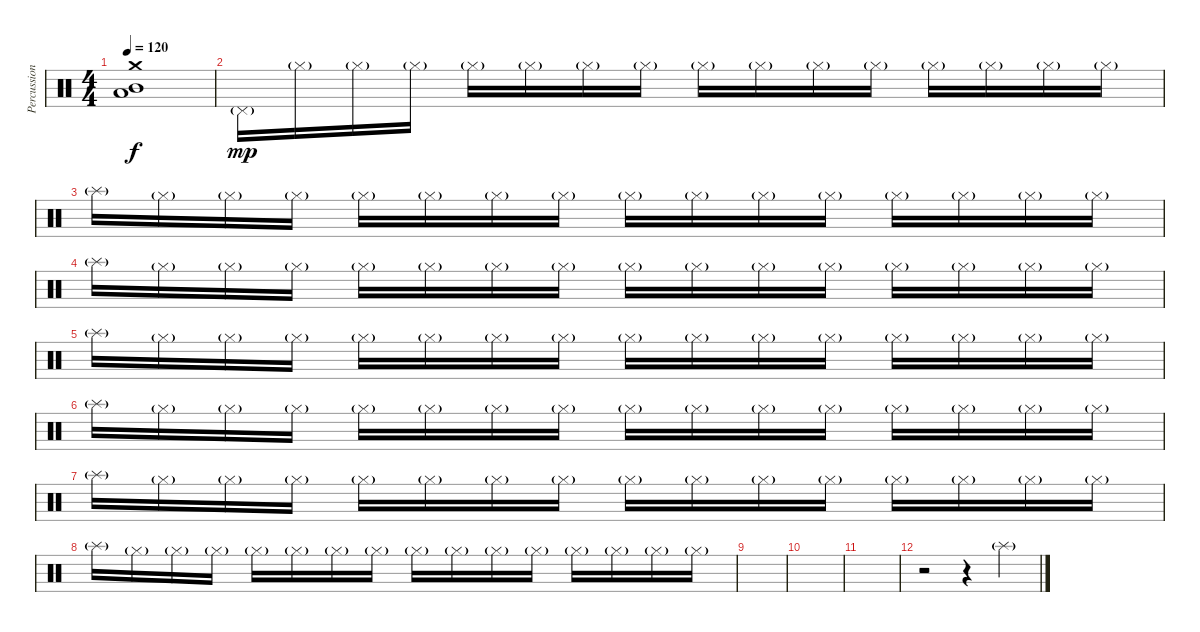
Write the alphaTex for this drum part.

\track ("Percussions" "Percussion") {instrument percussion}
\staff {score}
\articulation defaults
\ts (4 4)
\tempo 120
\clef neutral
\ks c
("Crash medium (hit)" "Mid Tom (hit)" "Low Tom (hit)").1{dy f} |
"Pedal Hi-Hat (hit)"{g}.16{dy mp} "Hi-Hat (closed)"{g}.16 "Hi-Hat (closed)"{g}.16 "Hi-Hat (closed)"{g}.16 "Hi-Hat (closed)"{g}.16 "Hi-Hat (closed)"{g}.16 "Hi-Hat (closed)"{g}.16 "Hi-Hat (closed)"{g}.16 "Hi-Hat (closed)"{g}.16 "Hi-Hat (closed)"{g}.16 "Hi-Hat (closed)"{g}.16 "Hi-Hat (closed)"{g}.16 "Hi-Hat (closed)"{g}.16 "Hi-Hat (closed)"{g}.16 "Hi-Hat (closed)"{g}.16 "Hi-Hat (closed)"{g}.16 |
"Splash (hit)"{g}.16 "Hi-Hat (closed)"{g}.16 "Hi-Hat (closed)"{g}.16 "Hi-Hat (closed)"{g}.16 "Hi-Hat (closed)"{g}.16 "Hi-Hat (closed)"{g}.16 "Hi-Hat (closed)"{g}.16 "Hi-Hat (closed)"{g}.16 "Hi-Hat (closed)"{g}.16 "Hi-Hat (closed)"{g}.16 "Hi-Hat (closed)"{g}.16 "Hi-Hat (closed)"{g}.16 "Hi-Hat (closed)"{g}.16 "Hi-Hat (closed)"{g}.16 "Hi-Hat (closed)"{g}.16 "Hi-Hat (closed)"{g}.16 |
"Splash (hit)"{g}.16 "Hi-Hat (closed)"{g}.16 "Hi-Hat (closed)"{g}.16 "Hi-Hat (closed)"{g}.16 "Hi-Hat (closed)"{g}.16 "Hi-Hat (closed)"{g}.16 "Hi-Hat (closed)"{g}.16 "Hi-Hat (closed)"{g}.16 "Hi-Hat (closed)"{g}.16 "Hi-Hat (closed)"{g}.16 "Hi-Hat (closed)"{g}.16 "Hi-Hat (closed)"{g}.16 "Hi-Hat (closed)"{g}.16 "Hi-Hat (closed)"{g}.16 "Hi-Hat (closed)"{g}.16 "Hi-Hat (closed)"{g}.16 |
"Splash (hit)"{g}.16 "Hi-Hat (closed)"{g}.16 "Hi-Hat (closed)"{g}.16 "Hi-Hat (closed)"{g}.16 "Hi-Hat (closed)"{g}.16 "Hi-Hat (closed)"{g}.16 "Hi-Hat (closed)"{g}.16 "Hi-Hat (closed)"{g}.16 "Hi-Hat (closed)"{g}.16 "Hi-Hat (closed)"{g}.16 "Hi-Hat (closed)"{g}.16 "Hi-Hat (closed)"{g}.16 "Hi-Hat (closed)"{g}.16 "Hi-Hat (closed)"{g}.16 "Hi-Hat (closed)"{g}.16 "Hi-Hat (closed)"{g}.16 |
"Splash (hit)"{g}.16 "Hi-Hat (closed)"{g}.16 "Hi-Hat (closed)"{g}.16 "Hi-Hat (closed)"{g}.16 "Hi-Hat (closed)"{g}.16 "Hi-Hat (closed)"{g}.16 "Hi-Hat (closed)"{g}.16 "Hi-Hat (closed)"{g}.16 "Hi-Hat (closed)"{g}.16 "Hi-Hat (closed)"{g}.16 "Hi-Hat (closed)"{g}.16 "Hi-Hat (closed)"{g}.16 "Hi-Hat (closed)"{g}.16 "Hi-Hat (closed)"{g}.16 "Hi-Hat (closed)"{g}.16 "Hi-Hat (closed)"{g}.16 |
"Splash (hit)"{g}.16 "Hi-Hat (closed)"{g}.16 "Hi-Hat (closed)"{g}.16 "Hi-Hat (closed)"{g}.16 "Hi-Hat (closed)"{g}.16 "Hi-Hat (closed)"{g}.16 "Hi-Hat (closed)"{g}.16 "Hi-Hat (closed)"{g}.16 "Hi-Hat (closed)"{g}.16 "Hi-Hat (closed)"{g}.16 "Hi-Hat (closed)"{g}.16 "Hi-Hat (closed)"{g}.16 "Hi-Hat (closed)"{g}.16 "Hi-Hat (closed)"{g}.16 "Hi-Hat (closed)"{g}.16 "Hi-Hat (closed)"{g}.16 |
"Splash (hit)"{g}.16 "Hi-Hat (closed)"{g}.16 "Hi-Hat (closed)"{g}.16 "Hi-Hat (closed)"{g}.16 "Hi-Hat (closed)"{g}.16 "Hi-Hat (closed)"{g}.16 "Hi-Hat (closed)"{g}.16 "Hi-Hat (closed)"{g}.16 "Hi-Hat (closed)"{g}.16 "Hi-Hat (closed)"{g}.16 "Hi-Hat (closed)"{g}.16 "Hi-Hat (closed)"{g}.16 "Hi-Hat (closed)"{g}.16 "Hi-Hat (closed)"{g}.16 "Hi-Hat (closed)"{g}.16 "Hi-Hat (closed)"{g}.16 |
|
|
|
r.2 r.4 "Splash (hit)"{g}.4
